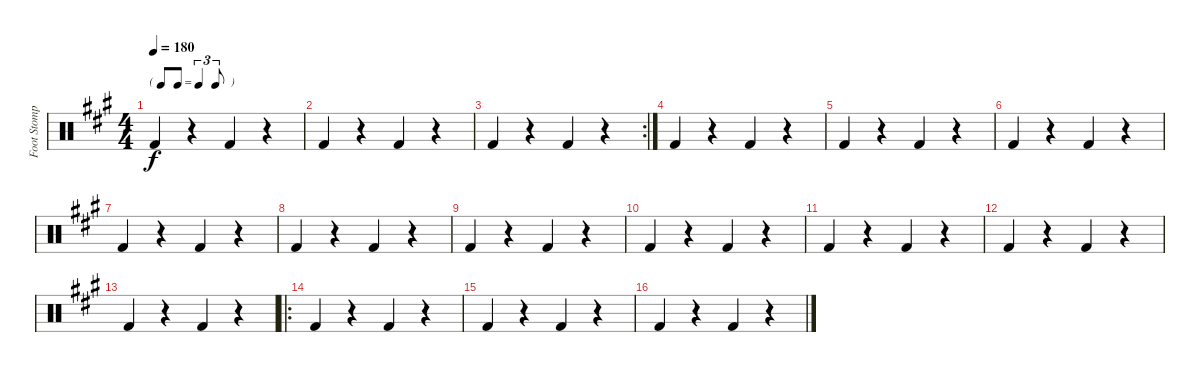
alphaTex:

\track ("Foot Stomp" "Foot Stomp") {instrument percussion}
\staff {score}
\articulation defaults
\ts (4 4)
\tf triplet8th
\tempo 180
\clef neutral
\ks a "Kick (hit) 2".4{dy f}
r.4 "Kick (hit) 2".4 r.4 |
"Kick (hit) 2".4 r.4 "Kick (hit) 2".4 r.4 |
\rc 2 "Kick (hit) 2".4
r.4 "Kick (hit) 2".4 r.4 |
"Kick (hit) 2".4 r.4 "Kick (hit) 2".4 r.4 |
"Kick (hit) 2".4 r.4 "Kick (hit) 2".4 r.4 |
"Kick (hit) 2".4 r.4 "Kick (hit) 2".4 r.4 |
"Kick (hit) 2".4 r.4 "Kick (hit) 2".4 r.4 |
"Kick (hit) 2".4 r.4 "Kick (hit) 2".4 r.4 |
"Kick (hit) 2".4 r.4 "Kick (hit) 2".4 r.4 |
"Kick (hit) 2".4 r.4 "Kick (hit) 2".4 r.4 |
"Kick (hit) 2".4 r.4 "Kick (hit) 2".4 r.4 |
"Kick (hit) 2".4 r.4 "Kick (hit) 2".4 r.4 |
"Kick (hit) 2".4 r.4 "Kick (hit) 2".4 r.4 |
\ro "Kick (hit) 2".4
r.4 "Kick (hit) 2".4 r.4 |
"Kick (hit) 2".4 r.4 "Kick (hit) 2".4 r.4 |
"Kick (hit) 2".4 r.4 "Kick (hit) 2".4 r.4
